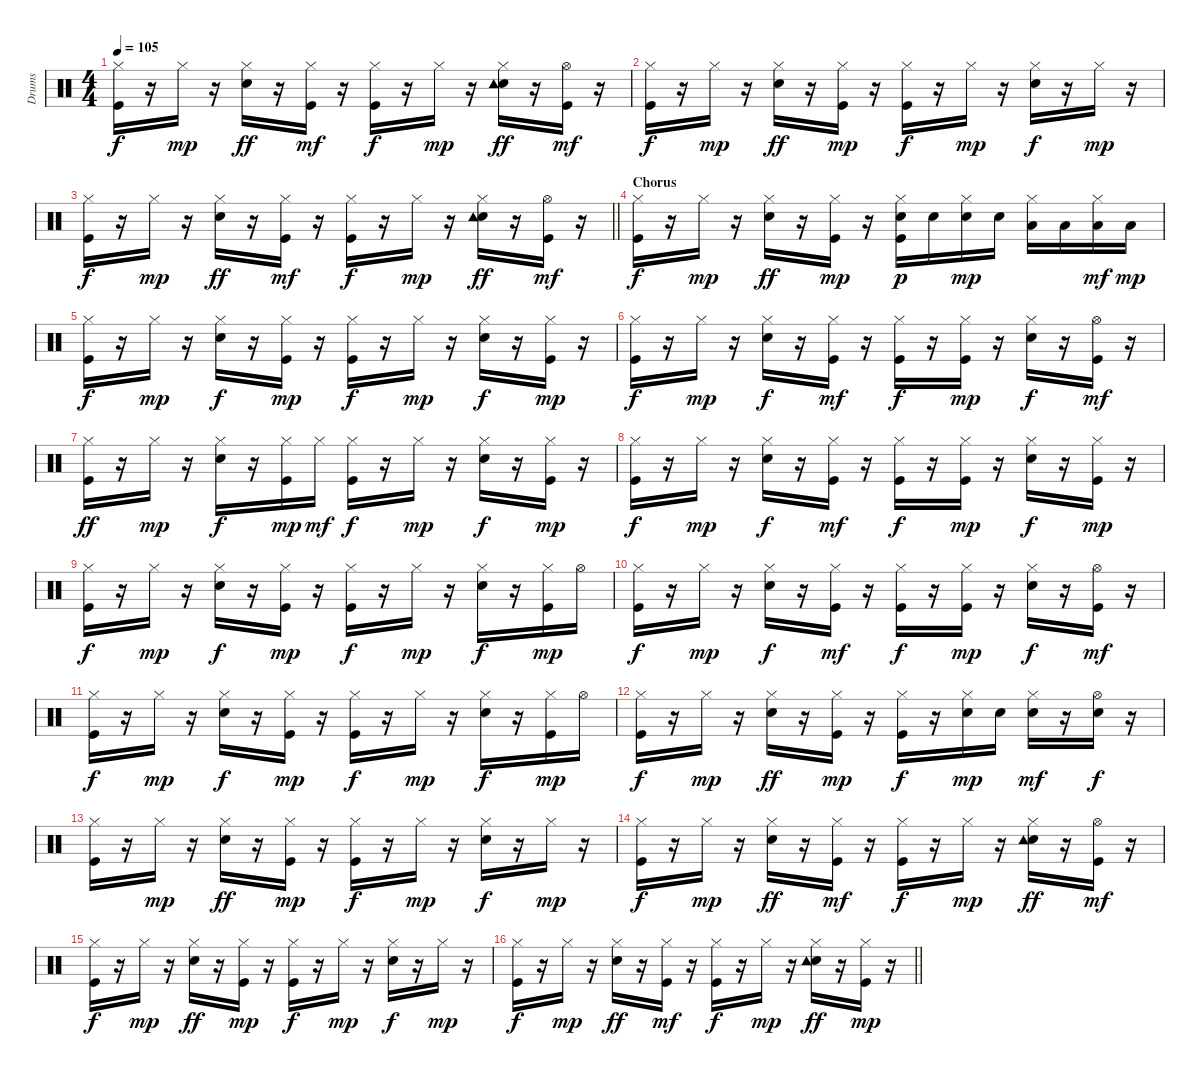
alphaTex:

\track ("Drums   " "Drums   ") {instrument percussion}
\staff {score}
\articulation defaults
\ts (4 4)
\tempo 105
\clef neutral
\ks c
("Kick (hit)" "Hi-Hat (closed)").16{dy f} r.16 "Hi-Hat (closed)".16{dy mp} r.16 ("Snare (hit) 2" "Hi-Hat (closed)").16{dy ff} r.16 ("Kick (hit)" "Hi-Hat (closed)").16{dy mf} r.16 ("Kick (hit)" "Hi-Hat (closed)").16{dy f} r.16 "Hi-Hat (closed)".16{dy mp} r.16 ("Snare (hit) 2" "Hi-Hat (closed)" "Tambourine (hit)").16{dy ff} r.16 ("Kick (hit)" "Hi-Hat (open)").16{dy mf} r.16 |
("Kick (hit)" "Hi-Hat (closed)").16{dy f} r.16 "Hi-Hat (closed)".16{dy mp} r.16 ("Snare (hit) 2" "Hi-Hat (closed)").16{dy ff} r.16 ("Kick (hit)" "Hi-Hat (closed)").16{dy mp} r.16 ("Kick (hit)" "Hi-Hat (closed)").16{dy f} r.16 "Hi-Hat (closed)".16{dy mp} r.16 ("Snare (hit) 2" "Hi-Hat (closed)").16{dy f} r.16 "Hi-Hat (closed)".16{dy mp} r.16 |
\barLineRight lightlight
("Kick (hit)" "Hi-Hat (closed)").16{dy f} r.16 "Hi-Hat (closed)".16{dy mp} r.16 ("Snare (hit) 2" "Hi-Hat (closed)").16{dy ff} r.16 ("Kick (hit)" "Hi-Hat (closed)").16{dy mf} r.16 ("Kick (hit)" "Hi-Hat (closed)").16{dy f} r.16 "Hi-Hat (closed)".16{dy mp} r.16 ("Snare (hit) 2" "Hi-Hat (closed)" "Tambourine (hit)").16{dy ff} r.16 ("Kick (hit)" "Hi-Hat (open)").16{dy mf} r.16 |
\section ("" "Chorus")
("Kick (hit)" "Hi-Hat (closed)").16{dy f} r.16 "Hi-Hat (closed)".16{dy mp} r.16 ("Snare (hit) 2" "Hi-Hat (closed)").16{dy ff} r.16 ("Kick (hit)" "Hi-Hat (closed)").16{dy mp} r.16 ("Kick (hit)" "Snare (hit) 2" "Hi-Hat (closed)").16{dy p} "Snare (hit) 2".16 ("Snare (hit) 2" "Hi-Hat (closed)").16{dy mp} "Snare (hit) 2".16 ("Hi-Hat (closed)" "Low Tom (hit)").16 "Low Tom (hit)".16 ("Hi-Hat (closed)" "Low Tom (hit)").16{dy mf} "Low Tom (hit)".16{dy mp} |
("Kick (hit)" "Hi-Hat (closed)").16{dy f} r.16 "Hi-Hat (closed)".16{dy mp} r.16 ("Snare (hit) 2" "Hi-Hat (closed)").16{dy f} r.16 ("Kick (hit)" "Hi-Hat (closed)").16{dy mp} r.16 ("Kick (hit)" "Hi-Hat (closed)").16{dy f} r.16 "Hi-Hat (closed)".16{dy mp} r.16 ("Snare (hit) 2" "Hi-Hat (closed)").16{dy f} r.16 ("Kick (hit)" "Hi-Hat (closed)").16{dy mp} r.16 |
("Kick (hit)" "Hi-Hat (closed)").16{dy f} r.16 "Hi-Hat (closed)".16{dy mp} r.16 ("Snare (hit) 2" "Hi-Hat (closed)").16{dy f} r.16 ("Kick (hit)" "Hi-Hat (closed)").16{dy mf} r.16 ("Kick (hit)" "Hi-Hat (closed)").16{dy f} r.16 ("Kick (hit)" "Hi-Hat (closed)").16{dy mp} r.16 ("Snare (hit) 2" "Hi-Hat (closed)").16{dy f} r.16 ("Kick (hit)" "Hi-Hat (open)").16{dy mf} r.16 |
("Kick (hit)" "Hi-Hat (closed)").16{dy ff} r.16 "Hi-Hat (closed)".16{dy mp} r.16 ("Snare (hit) 2" "Hi-Hat (closed)").16{dy f} r.16 ("Kick (hit)" "Hi-Hat (closed)").16{dy mp} "Hi-Hat (closed)".16{dy mf} ("Kick (hit)" "Hi-Hat (closed)").16{dy f} r.16 "Hi-Hat (closed)".16{dy mp} r.16 ("Snare (hit) 2" "Hi-Hat (closed)").16{dy f} r.16 ("Kick (hit)" "Hi-Hat (closed)").16{dy mp} r.16 |
("Kick (hit)" "Hi-Hat (closed)").16{dy f} r.16 "Hi-Hat (closed)".16{dy mp} r.16 ("Snare (hit) 2" "Hi-Hat (closed)").16{dy f} r.16 ("Kick (hit)" "Hi-Hat (closed)").16{dy mf} r.16 ("Kick (hit)" "Hi-Hat (closed)").16{dy f} r.16 ("Kick (hit)" "Hi-Hat (closed)").16{dy mp} r.16 ("Snare (hit) 2" "Hi-Hat (closed)").16{dy f} r.16 ("Kick (hit)" "Hi-Hat (closed)").16{dy mp} r.16 |
("Kick (hit)" "Hi-Hat (closed)").16{dy f} r.16 "Hi-Hat (closed)".16{dy mp} r.16 ("Snare (hit) 2" "Hi-Hat (closed)").16{dy f} r.16 ("Kick (hit)" "Hi-Hat (closed)").16{dy mp} r.16 ("Kick (hit)" "Hi-Hat (closed)").16{dy f} r.16 "Hi-Hat (closed)".16{dy mp} r.16 ("Snare (hit) 2" "Hi-Hat (closed)").16{dy f} r.16 ("Kick (hit)" "Hi-Hat (closed)").16{dy mp} "Hi-Hat (open)".16 |
("Kick (hit)" "Hi-Hat (closed)").16{dy f} r.16 "Hi-Hat (closed)".16{dy mp} r.16 ("Snare (hit) 2" "Hi-Hat (closed)").16{dy f} r.16 ("Kick (hit)" "Hi-Hat (closed)").16{dy mf} r.16 ("Kick (hit)" "Hi-Hat (closed)").16{dy f} r.16 ("Kick (hit)" "Hi-Hat (closed)").16{dy mp} r.16 ("Snare (hit) 2" "Hi-Hat (closed)").16{dy f} r.16 ("Kick (hit)" "Hi-Hat (open)").16{dy mf} r.16 |
("Kick (hit)" "Hi-Hat (closed)").16{dy f} r.16 "Hi-Hat (closed)".16{dy mp} r.16 ("Snare (hit) 2" "Hi-Hat (closed)").16{dy f} r.16 ("Kick (hit)" "Hi-Hat (closed)").16{dy mp} r.16 ("Kick (hit)" "Hi-Hat (closed)").16{dy f} r.16 "Hi-Hat (closed)".16{dy mp} r.16 ("Snare (hit) 2" "Hi-Hat (closed)").16{dy f} r.16 ("Kick (hit)" "Hi-Hat (closed)").16{dy mp} "Hi-Hat (open)".16 |
("Kick (hit)" "Hi-Hat (closed)").16{dy f} r.16 "Hi-Hat (closed)".16{dy mp} r.16 ("Snare (hit) 2" "Hi-Hat (closed)").16{dy ff} r.16 ("Kick (hit)" "Hi-Hat (closed)").16{dy mp} r.16 ("Kick (hit)" "Hi-Hat (closed)").16{dy f} r.16 ("Snare (hit) 2" "Hi-Hat (closed)").16{dy mp} "Snare (hit) 2".16 ("Snare (hit) 2" "Hi-Hat (closed)").16{dy mf} r.16 ("Snare (hit) 2" "Hi-Hat (open)").16{dy f} r.16 |
("Kick (hit)" "Hi-Hat (closed)").16 r.16 "Hi-Hat (closed)".16{dy mp} r.16 ("Snare (hit) 2" "Hi-Hat (closed)").16{dy ff} r.16 ("Kick (hit)" "Hi-Hat (closed)").16{dy mp} r.16 ("Kick (hit)" "Hi-Hat (closed)").16{dy f} r.16 "Hi-Hat (closed)".16{dy mp} r.16 ("Snare (hit) 2" "Hi-Hat (closed)").16{dy f} r.16 "Hi-Hat (closed)".16{dy mp} r.16 |
("Kick (hit)" "Hi-Hat (closed)").16{dy f} r.16 "Hi-Hat (closed)".16{dy mp} r.16 ("Snare (hit) 2" "Hi-Hat (closed)").16{dy ff} r.16 ("Kick (hit)" "Hi-Hat (closed)").16{dy mf} r.16 ("Kick (hit)" "Hi-Hat (closed)").16{dy f} r.16 "Hi-Hat (closed)".16{dy mp} r.16 ("Snare (hit) 2" "Hi-Hat (closed)" "Tambourine (hit)").16{dy ff} r.16 ("Kick (hit)" "Hi-Hat (open)").16{dy mf} r.16 |
("Kick (hit)" "Hi-Hat (closed)").16{dy f} r.16 "Hi-Hat (closed)".16{dy mp} r.16 ("Snare (hit) 2" "Hi-Hat (closed)").16{dy ff} r.16 ("Kick (hit)" "Hi-Hat (closed)").16{dy mp} r.16 ("Kick (hit)" "Hi-Hat (closed)").16{dy f} r.16 "Hi-Hat (closed)".16{dy mp} r.16 ("Snare (hit) 2" "Hi-Hat (closed)").16{dy f} r.16 "Hi-Hat (closed)".16{dy mp} r.16 |
\barLineRight lightlight
("Kick (hit)" "Hi-Hat (closed)").16{dy f} r.16 "Hi-Hat (closed)".16{dy mp} r.16 ("Snare (hit) 2" "Hi-Hat (closed)").16{dy ff} r.16 ("Kick (hit)" "Hi-Hat (closed)").16{dy mf} r.16 ("Kick (hit)" "Hi-Hat (closed)").16{dy f} r.16 "Hi-Hat (closed)".16{dy mp} r.16 ("Snare (hit) 2" "Hi-Hat (closed)" "Tambourine (hit)").16{dy ff} r.16 ("Kick (hit)" "Hi-Hat (closed)").16{dy mp} r.16
